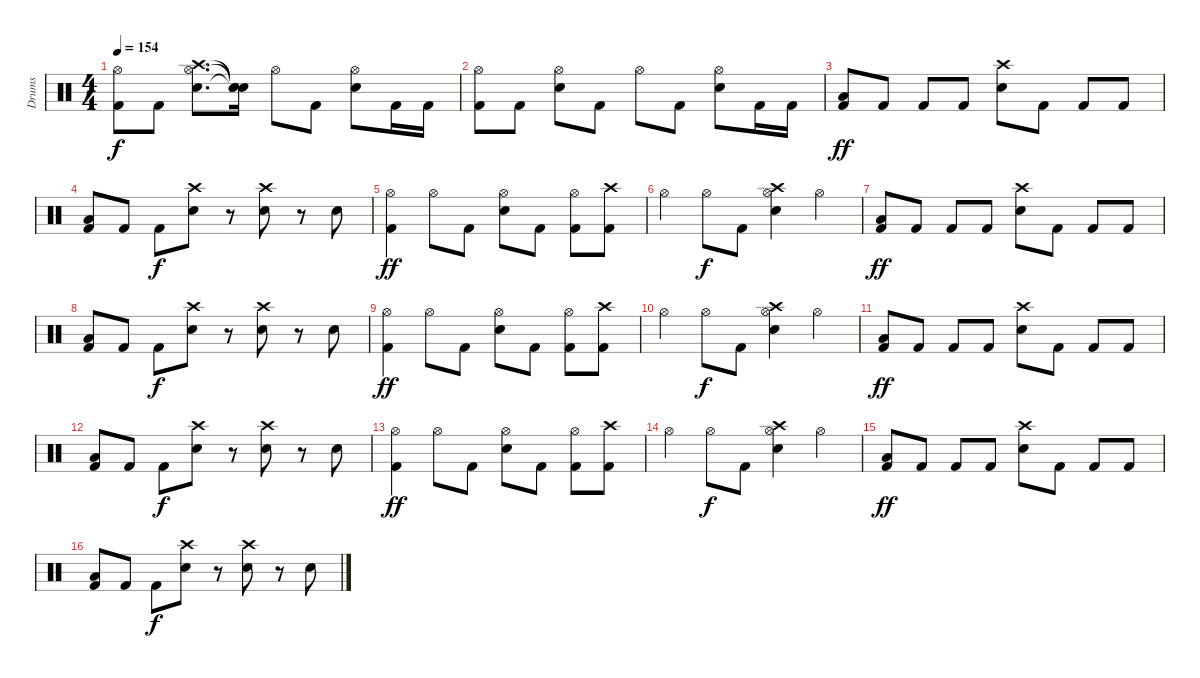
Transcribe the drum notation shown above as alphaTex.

\track ("Drums" "Drums") {instrument percussion}
\staff {score}
\articulation defaults
\ts (4 4)
\tempo 154
\clef neutral
\ks c
("Kick (hit) 2" "Hi-Hat (open)").8{dy f} "Kick (hit) 2".8 ("Snare (hit) 2" "Hi-Hat (open)" "Crash high (hit)").8{d} ("Snare (hit)"{t} "Snare (hit)"{t} "Snare (hit)"{t}).16 "Hi-Hat (open)".8 "Kick (hit) 2".8 ("Snare (hit) 2" "Hi-Hat (open)").8 "Kick (hit) 2".16 "Kick (hit) 2".16 |
("Kick (hit) 2" "Hi-Hat (open)").8 "Kick (hit) 2".8 ("Snare (hit) 2" "Hi-Hat (open)").8 "Kick (hit) 2".8 "Hi-Hat (open)".8 "Kick (hit) 2".8 ("Snare (hit) 2" "Hi-Hat (open)").8 "Kick (hit) 2".16 "Kick (hit) 2".16 |
("Kick (hit) 2" "Low Floor Tom (hit)").8{dy ff} "Kick (hit) 2".8 "Kick (hit) 2".8 "Kick (hit) 2".8 ("Snare (hit) 2" "Crash high (hit)").8 "Kick (hit) 2".8 "Kick (hit) 2".8 "Kick (hit) 2".8 |
("Kick (hit) 2" "Low Floor Tom (hit)").8 "Kick (hit) 2".8 "Kick (hit) 2".8{dy f} ("Snare (hit) 2" "Crash high (hit)").8 r.8 ("Snare (hit) 2" "Crash high (hit)").8 r.8 "Snare (hit) 2".8 |
("Kick (hit) 2" "Hi-Hat (open)").4{dy ff} "Hi-Hat (open)".8 "Kick (hit) 2".8 ("Snare (hit) 2" "Hi-Hat (open)").8 "Kick (hit) 2".8 ("Kick (hit) 2" "Hi-Hat (open)").8 ("Kick (hit) 2" "Crash high (hit)").8 |
"Hi-Hat (open)".4 "Hi-Hat (open)".8{dy f} "Kick (hit) 2".8 ("Snare (hit) 2" "Hi-Hat (open)" "Crash high (hit)").4 "Hi-Hat (open)".4 |
("Kick (hit) 2" "Low Floor Tom (hit)").8{dy ff} "Kick (hit) 2".8 "Kick (hit) 2".8 "Kick (hit) 2".8 ("Snare (hit) 2" "Crash high (hit)").8 "Kick (hit) 2".8 "Kick (hit) 2".8 "Kick (hit) 2".8 |
("Kick (hit) 2" "Low Floor Tom (hit)").8 "Kick (hit) 2".8 "Kick (hit) 2".8{dy f} ("Snare (hit) 2" "Crash high (hit)").8 r.8 ("Snare (hit) 2" "Crash high (hit)").8 r.8 "Snare (hit) 2".8 |
("Kick (hit) 2" "Hi-Hat (open)").4{dy ff} "Hi-Hat (open)".8 "Kick (hit) 2".8 ("Snare (hit) 2" "Hi-Hat (open)").8 "Kick (hit) 2".8 ("Kick (hit) 2" "Hi-Hat (open)").8 ("Kick (hit) 2" "Crash high (hit)").8 |
"Hi-Hat (open)".4 "Hi-Hat (open)".8{dy f} "Kick (hit) 2".8 ("Snare (hit) 2" "Hi-Hat (open)" "Crash high (hit)").4 "Hi-Hat (open)".4 |
("Kick (hit) 2" "Low Floor Tom (hit)").8{dy ff} "Kick (hit) 2".8 "Kick (hit) 2".8 "Kick (hit) 2".8 ("Snare (hit) 2" "Crash high (hit)").8 "Kick (hit) 2".8 "Kick (hit) 2".8 "Kick (hit) 2".8 |
("Kick (hit) 2" "Low Floor Tom (hit)").8 "Kick (hit) 2".8 "Kick (hit) 2".8{dy f} ("Snare (hit) 2" "Crash high (hit)").8 r.8 ("Snare (hit) 2" "Crash high (hit)").8 r.8 "Snare (hit) 2".8 |
("Kick (hit) 2" "Hi-Hat (open)").4{dy ff} "Hi-Hat (open)".8 "Kick (hit) 2".8 ("Snare (hit) 2" "Hi-Hat (open)").8 "Kick (hit) 2".8 ("Kick (hit) 2" "Hi-Hat (open)").8 ("Kick (hit) 2" "Crash high (hit)").8 |
"Hi-Hat (open)".4 "Hi-Hat (open)".8{dy f} "Kick (hit) 2".8 ("Snare (hit) 2" "Hi-Hat (open)" "Crash high (hit)").4 "Hi-Hat (open)".4 |
("Kick (hit) 2" "Low Floor Tom (hit)").8{dy ff} "Kick (hit) 2".8 "Kick (hit) 2".8 "Kick (hit) 2".8 ("Snare (hit) 2" "Crash high (hit)").8 "Kick (hit) 2".8 "Kick (hit) 2".8 "Kick (hit) 2".8 |
("Kick (hit) 2" "Low Floor Tom (hit)").8 "Kick (hit) 2".8 "Kick (hit) 2".8{dy f} ("Snare (hit) 2" "Crash high (hit)").8 r.8 ("Snare (hit) 2" "Crash high (hit)").8 r.8 "Snare (hit) 2".8
